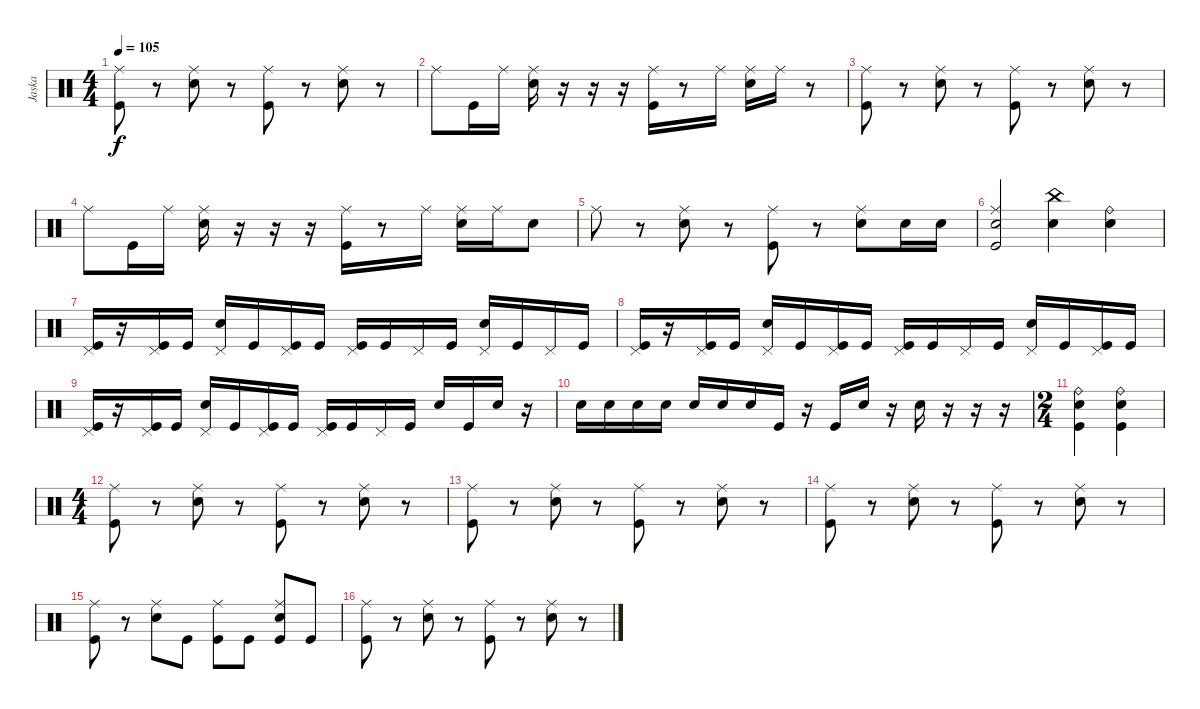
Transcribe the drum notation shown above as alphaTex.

\track ("Jaska" "Jaska") {instrument percussion}
\staff {score}
\articulation defaults
\ts (4 4)
\tempo 105
\clef neutral
\ks c
("Kick (hit)" "Ride (middle)").8{dy f} r.8 ("Snare (hit) 2" "Ride (middle)").8 r.8 ("Kick (hit)" "Ride (middle)").8 r.8 ("Snare (hit) 2" "Ride (middle)").8 r.8 |
"Ride (middle)".8 "Kick (hit)".16 "Ride (middle)".16 ("Snare (hit) 2" "Ride (middle)").16 r.16 r.16 r.16 ("Kick (hit)" "Ride (middle)").16 r.8 "Ride (middle)".16 ("Snare (hit) 2" "Ride (middle)").16 "Ride (middle)".16 r.8 |
("Kick (hit)" "Ride (middle)").8 r.8 ("Snare (hit) 2" "Ride (middle)").8 r.8 ("Kick (hit)" "Ride (middle)").8 r.8 ("Snare (hit) 2" "Ride (middle)").8 r.8 |
"Ride (middle)".8 "Kick (hit)".16 "Ride (middle)".16 ("Snare (hit) 2" "Ride (middle)").16 r.16 r.16 r.16 ("Kick (hit)" "Ride (middle)").16 r.8 "Ride (middle)".16 ("Snare (hit) 2" "Ride (middle)").16 "Ride (middle)".16 "Snare (hit) 2".8 |
"Ride (middle)".8 r.8 ("Snare (hit) 2" "Ride (middle)").8 r.8 ("Kick (hit)" "Ride (middle)").8 r.8 ("Snare (hit) 2" "Ride (middle)").8 "Snare (hit) 2".16 "Snare (hit) 2".16 |
("Snare (hit) 2" "Kick (hit)" "Ride (middle)").2 ("Snare (hit) 2" "China (hit)").4 ("Snare (hit) 2" "Ride (bell)").4 |
("Kick (hit)" "Pedal Hi-Hat (hit)").16 r.16 ("Kick (hit)" "Pedal Hi-Hat (hit)").16 "Kick (hit)".16 ("Snare (hit) 2" "Pedal Hi-Hat (hit)").16 "Kick (hit)".16 ("Kick (hit)" "Pedal Hi-Hat (hit)").16 "Kick (hit)".16 ("Kick (hit)" "Pedal Hi-Hat (hit)").16 "Kick (hit)".16 "Pedal Hi-Hat (hit)".16 "Kick (hit)".16 ("Snare (hit) 2" "Pedal Hi-Hat (hit)").16 "Kick (hit)".16 "Pedal Hi-Hat (hit)".16 "Kick (hit)".16 |
("Kick (hit)" "Pedal Hi-Hat (hit)").16 r.16 ("Kick (hit)" "Pedal Hi-Hat (hit)").16 "Kick (hit)".16 ("Snare (hit) 2" "Pedal Hi-Hat (hit)").16 "Kick (hit)".16 ("Kick (hit)" "Pedal Hi-Hat (hit)").16 "Kick (hit)".16 ("Kick (hit)" "Pedal Hi-Hat (hit)").16 "Kick (hit)".16 "Pedal Hi-Hat (hit)".16 "Kick (hit)".16 ("Snare (hit) 2" "Pedal Hi-Hat (hit)").16 "Kick (hit)".16 ("Kick (hit)" "Pedal Hi-Hat (hit)").16 "Kick (hit)".16 |
("Kick (hit)" "Pedal Hi-Hat (hit)").16 r.16 ("Kick (hit)" "Pedal Hi-Hat (hit)").16 "Kick (hit)".16 ("Snare (hit) 2" "Pedal Hi-Hat (hit)").16 "Kick (hit)".16 ("Kick (hit)" "Pedal Hi-Hat (hit)").16 "Kick (hit)".16 ("Kick (hit)" "Pedal Hi-Hat (hit)").16 "Kick (hit)".16 "Pedal Hi-Hat (hit)".16 "Kick (hit)".16 "Snare (hit) 2".16 "Kick (hit)".16 "Snare (hit) 2".16 r.16 |
"Snare (hit) 2".16 "Snare (hit) 2".16 "Snare (hit) 2".16 "Snare (hit) 2".16 "Snare (hit) 2".16 "Snare (hit) 2".16 "Snare (hit) 2".16 "Kick (hit)".16 r.16 "Kick (hit)".16 "Snare (hit) 2".16 r.16 "Snare (hit) 2".16 r.16 r.16 r.16 |
\ts (2 4)
("Snare (hit) 2" "Kick (hit)" "Ride (bell)").4 ("Snare (hit) 2" "Kick (hit)" "Ride (bell)").4 |
\ts (4 4)
("Kick (hit)" "Ride (middle)").8 r.8 ("Snare (hit) 2" "Ride (middle)").8 r.8 ("Kick (hit)" "Ride (middle)").8 r.8 ("Snare (hit) 2" "Ride (middle)").8 r.8 |
("Kick (hit)" "Ride (middle)").8 r.8 ("Snare (hit) 2" "Ride (middle)").8 r.8 ("Kick (hit)" "Ride (middle)").8 r.8 ("Snare (hit) 2" "Ride (middle)").8 r.8 |
("Kick (hit)" "Ride (middle)").8 r.8 ("Snare (hit) 2" "Ride (middle)").8 r.8 ("Kick (hit)" "Ride (middle)").8 r.8 ("Snare (hit) 2" "Ride (middle)").8 r.8 |
("Kick (hit)" "Ride (middle)").8 r.8 ("Snare (hit) 2" "Ride (middle)").8 "Kick (hit)".8 ("Kick (hit)" "Ride (middle)").8 "Kick (hit)".8 ("Kick (hit)" "Snare (hit) 2" "Ride (middle)").8 "Kick (hit)".8 |
("Kick (hit)" "Ride (middle)").8 r.8 ("Snare (hit) 2" "Ride (middle)").8 r.8 ("Kick (hit)" "Ride (middle)").8 r.8 ("Snare (hit) 2" "Ride (middle)").8 r.8
